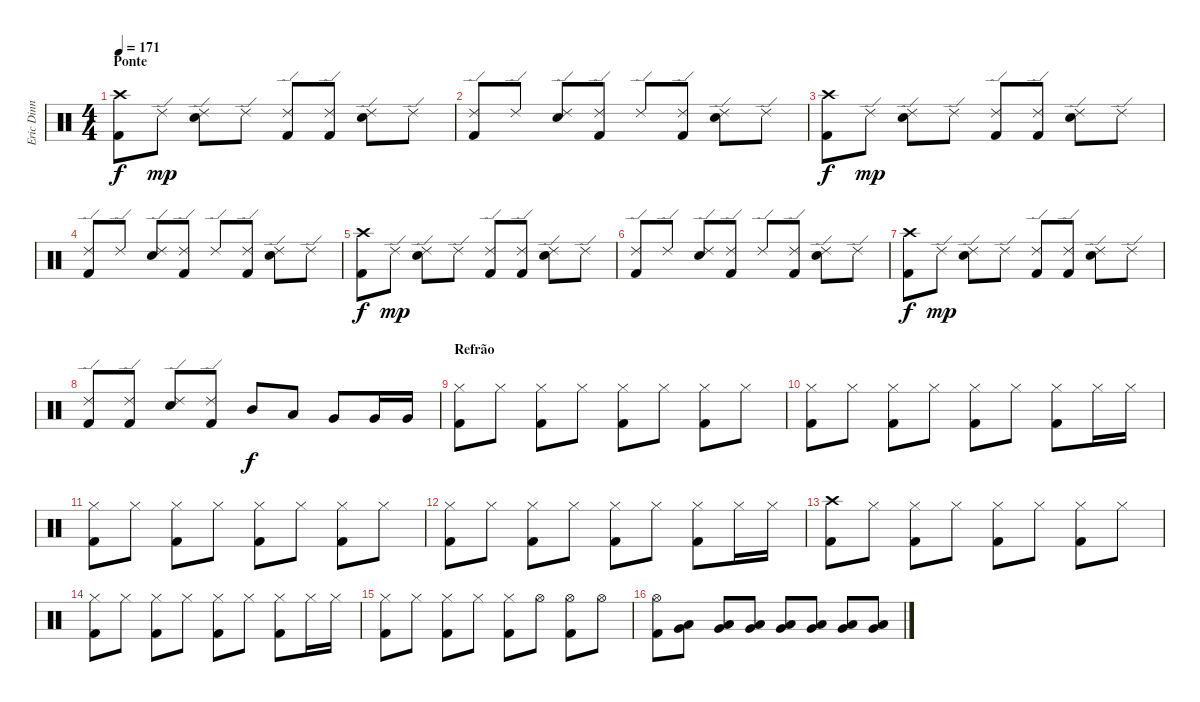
\track ("Eric Dinn" "Eric Dinn") {instrument percussion}
\staff {score}
\articulation defaults
\ts (4 4)
\section ("" "Ponte")
\tempo 171
\clef neutral
\ks c
("Crash high (hit)" "Kick (hit) 2").8{dy f} "Ride (edge) 2".8{dy mp} ("Ride (edge) 2" "Snare (hit) 2").8 "Ride (edge) 2".8 ("Ride (edge) 2" "Kick (hit) 2").8 ("Ride (edge) 2" "Kick (hit) 2").8 ("Ride (edge) 2" "Snare (hit) 2").8 "Ride (edge) 2".8 |
("Ride (edge) 2" "Kick (hit) 2").8 "Ride (edge) 2".8 ("Ride (edge) 2" "Snare (hit) 2").8 ("Ride (edge) 2" "Kick (hit) 2").8 "Ride (edge) 2".8 ("Ride (edge) 2" "Kick (hit) 2").8 ("Ride (edge) 2" "Snare (hit) 2").8 "Ride (edge) 2".8 |
("Crash high (hit)" "Kick (hit) 2").8{dy f} "Ride (edge) 2".8{dy mp} ("Ride (edge) 2" "Snare (hit) 2").8 "Ride (edge) 2".8 ("Ride (edge) 2" "Kick (hit) 2").8 ("Ride (edge) 2" "Kick (hit) 2").8 ("Ride (edge) 2" "Snare (hit) 2").8 "Ride (edge) 2".8 |
("Ride (edge) 2" "Kick (hit) 2").8 "Ride (edge) 2".8 ("Ride (edge) 2" "Snare (hit) 2").8 ("Ride (edge) 2" "Kick (hit) 2").8 "Ride (edge) 2".8 ("Ride (edge) 2" "Kick (hit) 2").8 ("Ride (edge) 2" "Snare (hit) 2").8 "Ride (edge) 2".8 |
("Crash high (hit)" "Kick (hit) 2").8{dy f} "Ride (edge) 2".8{dy mp} ("Ride (edge) 2" "Snare (hit) 2").8 "Ride (edge) 2".8 ("Ride (edge) 2" "Kick (hit) 2").8 ("Ride (edge) 2" "Kick (hit) 2").8 ("Ride (edge) 2" "Snare (hit) 2").8 "Ride (edge) 2".8 |
("Ride (edge) 2" "Kick (hit) 2").8 "Ride (edge) 2".8 ("Ride (edge) 2" "Snare (hit) 2").8 ("Ride (edge) 2" "Kick (hit) 2").8 "Ride (edge) 2".8 ("Ride (edge) 2" "Kick (hit) 2").8 ("Ride (edge) 2" "Snare (hit) 2").8 "Ride (edge) 2".8 |
("Crash high (hit)" "Kick (hit) 2").8{dy f} "Ride (edge) 2".8{dy mp} ("Ride (edge) 2" "Snare (hit) 2").8 "Ride (edge) 2".8 ("Ride (edge) 2" "Kick (hit) 2").8 ("Ride (edge) 2" "Kick (hit) 2").8 ("Ride (edge) 2" "Snare (hit) 2").8 "Ride (edge) 2".8 |
("Ride (edge) 2" "Kick (hit) 2").8 ("Ride (edge) 2" "Kick (hit) 2").8 ("Ride (edge) 2" "Snare (hit) 2").8 ("Ride (edge) 2" "Kick (hit) 2").8 "Mid Tom (hit)".8{dy f} "Low Tom (hit)".8 "Very Low Tom (hit)".8 "Very Low Tom (hit)".16 "Very Low Tom (hit)".16 |
\section ("" "Refrão")
("Hi-Hat (closed)" "Kick (hit) 2").8 "Hi-Hat (closed)".8 ("Hi-Hat (closed)" "Kick (hit) 2").8 "Hi-Hat (closed)".8 ("Hi-Hat (closed)" "Kick (hit) 2").8 "Hi-Hat (closed)".8 ("Hi-Hat (closed)" "Kick (hit) 2").8 "Hi-Hat (closed)".8 |
("Hi-Hat (closed)" "Kick (hit) 2").8 "Hi-Hat (closed)".8 ("Hi-Hat (closed)" "Kick (hit) 2").8 "Hi-Hat (closed)".8 ("Hi-Hat (closed)" "Kick (hit) 2").8 "Hi-Hat (closed)".8 ("Hi-Hat (closed)" "Kick (hit) 2").8 "Hi-Hat (closed)".16 "Hi-Hat (closed)".16 |
("Hi-Hat (closed)" "Kick (hit) 2").8 "Hi-Hat (closed)".8 ("Hi-Hat (closed)" "Kick (hit) 2").8 "Hi-Hat (closed)".8 ("Hi-Hat (closed)" "Kick (hit) 2").8 "Hi-Hat (closed)".8 ("Hi-Hat (closed)" "Kick (hit) 2").8 "Hi-Hat (closed)".8 |
("Hi-Hat (closed)" "Kick (hit) 2").8 "Hi-Hat (closed)".8 ("Hi-Hat (closed)" "Kick (hit) 2").8 "Hi-Hat (closed)".8 ("Hi-Hat (closed)" "Kick (hit) 2").8 "Hi-Hat (closed)".8 ("Hi-Hat (closed)" "Kick (hit) 2").8 "Hi-Hat (closed)".16 "Hi-Hat (closed)".16 |
("Crash high (hit)" "Kick (hit) 2").8 "Hi-Hat (closed)".8 ("Hi-Hat (closed)" "Kick (hit) 2").8 "Hi-Hat (closed)".8 ("Hi-Hat (closed)" "Kick (hit) 2").8 "Hi-Hat (closed)".8 ("Hi-Hat (closed)" "Kick (hit) 2").8 "Hi-Hat (closed)".8 |
("Hi-Hat (closed)" "Kick (hit) 2").8 "Hi-Hat (closed)".8 ("Hi-Hat (closed)" "Kick (hit) 2").8 "Hi-Hat (closed)".8 ("Hi-Hat (closed)" "Kick (hit) 2").8 "Hi-Hat (closed)".8 ("Hi-Hat (closed)" "Kick (hit) 2").8 "Hi-Hat (closed)".16 "Hi-Hat (closed)".16 |
("Hi-Hat (closed)" "Kick (hit) 2").8 "Hi-Hat (closed)".8 ("Hi-Hat (closed)" "Kick (hit) 2").8 "Hi-Hat (closed)".8 ("Hi-Hat (closed)" "Kick (hit) 2").8 "Hi-Hat (open)".8 ("Hi-Hat (open)" "Kick (hit) 2").8 "Hi-Hat (open)".8 |
("Hi-Hat (open)" "Kick (hit) 2").8 ("Very Low Tom (hit)" "Low Tom (hit)").8 ("Very Low Tom (hit)" "Low Tom (hit)").8 ("Very Low Tom (hit)" "Low Tom (hit)").8 ("Very Low Tom (hit)" "Low Tom (hit)").8 ("Very Low Tom (hit)" "Low Tom (hit)").8 ("Very Low Tom (hit)" "Low Tom (hit)").8 ("Very Low Tom (hit)" "Low Tom (hit)").8
